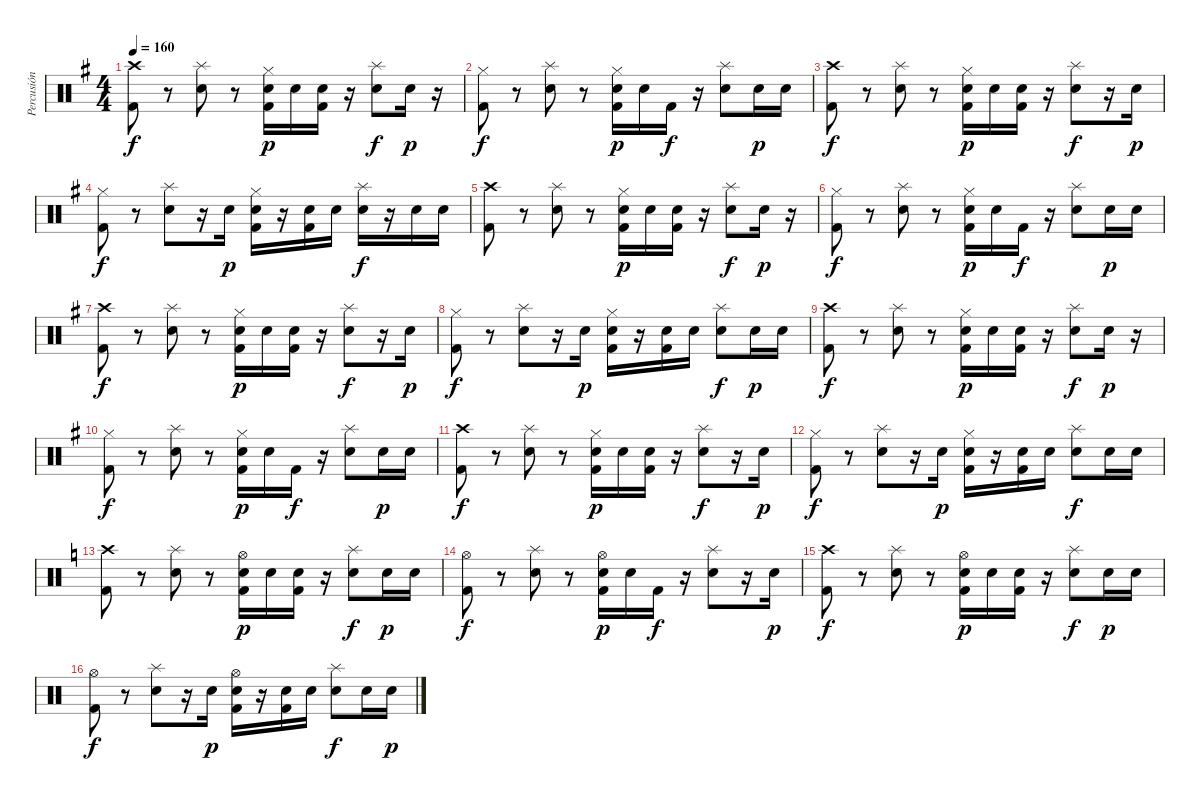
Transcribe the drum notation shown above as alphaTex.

\track ("Percusión" "Percusión") {instrument percussion}
\staff {score}
\articulation defaults
\ts (4 4)
\tempo 160
\clef neutral
\ks g
("Crash high (hit)" "Kick (hit) 2").8{dy f} r.8 ("Splash (hit)" "Electric Snare (hit)").8 r.8 ("Hi-Hat (closed)" "Electric Snare (hit)" "Kick (hit) 2").16{dy p} "Electric Snare (hit)".16 ("Electric Snare (hit)" "Kick (hit) 2").16 r.16 ("Splash (hit)" "Electric Snare (hit)").8{dy f} "Electric Snare (hit)".16{dy p} r.16 |
("Hi-Hat (closed)" "Kick (hit) 2").8{dy f} r.8 ("Splash (hit)" "Electric Snare (hit)").8 r.8 ("Hi-Hat (closed)" "Electric Snare (hit)" "Kick (hit) 2").16{dy p} "Electric Snare (hit)".16 "Kick (hit) 2".16{dy f} r.16 ("Splash (hit)" "Electric Snare (hit)").8 "Electric Snare (hit)".16{dy p} "Electric Snare (hit)".16 |
("Crash high (hit)" "Kick (hit) 2").8{dy f} r.8 ("Splash (hit)" "Electric Snare (hit)").8 r.8 ("Hi-Hat (closed)" "Electric Snare (hit)" "Kick (hit) 2").16{dy p} "Electric Snare (hit)".16 ("Electric Snare (hit)" "Kick (hit) 2").16 r.16 ("Splash (hit)" "Electric Snare (hit)").8{dy f} r.16 "Electric Snare (hit)".16{dy p} |
("Hi-Hat (closed)" "Kick (hit) 2").8{dy f} r.8 ("Splash (hit)" "Electric Snare (hit)").8 r.16 "Electric Snare (hit)".16{dy p} ("Hi-Hat (closed)" "Electric Snare (hit)" "Kick (hit) 2").16 r.16 ("Electric Snare (hit)" "Kick (hit) 2").16 "Electric Snare (hit)".16 ("Splash (hit)" "Electric Snare (hit)").16{dy f} r.16 "Electric Snare (hit)".16 "Electric Snare (hit)".16 |
("Crash high (hit)" "Kick (hit) 2").8 r.8 ("Splash (hit)" "Electric Snare (hit)").8 r.8 ("Hi-Hat (closed)" "Electric Snare (hit)" "Kick (hit) 2").16{dy p} "Electric Snare (hit)".16 ("Electric Snare (hit)" "Kick (hit) 2").16 r.16 ("Splash (hit)" "Electric Snare (hit)").8{dy f} "Electric Snare (hit)".16{dy p} r.16 |
("Hi-Hat (closed)" "Kick (hit) 2").8{dy f} r.8 ("Splash (hit)" "Electric Snare (hit)").8 r.8 ("Hi-Hat (closed)" "Electric Snare (hit)" "Kick (hit) 2").16{dy p} "Electric Snare (hit)".16 "Kick (hit) 2".16{dy f} r.16 ("Splash (hit)" "Electric Snare (hit)").8 "Electric Snare (hit)".16{dy p} "Electric Snare (hit)".16 |
("Crash high (hit)" "Kick (hit) 2").8{dy f} r.8 ("Splash (hit)" "Electric Snare (hit)").8 r.8 ("Hi-Hat (closed)" "Electric Snare (hit)" "Kick (hit) 2").16{dy p} "Electric Snare (hit)".16 ("Electric Snare (hit)" "Kick (hit) 2").16 r.16 ("Splash (hit)" "Electric Snare (hit)").8{dy f} r.16 "Electric Snare (hit)".16{dy p} |
("Hi-Hat (closed)" "Kick (hit) 2").8{dy f} r.8 ("Splash (hit)" "Electric Snare (hit)").8 r.16 "Electric Snare (hit)".16{dy p} ("Hi-Hat (closed)" "Electric Snare (hit)" "Kick (hit) 2").16 r.16 ("Electric Snare (hit)" "Kick (hit) 2").16 "Electric Snare (hit)".16 ("Splash (hit)" "Electric Snare (hit)").8{dy f} "Electric Snare (hit)".16{dy p} "Electric Snare (hit)".16 |
("Crash high (hit)" "Kick (hit) 2").8{dy f} r.8 ("Splash (hit)" "Electric Snare (hit)").8 r.8 ("Hi-Hat (closed)" "Electric Snare (hit)" "Kick (hit) 2").16{dy p} "Electric Snare (hit)".16 ("Electric Snare (hit)" "Kick (hit) 2").16 r.16 ("Splash (hit)" "Electric Snare (hit)").8{dy f} "Electric Snare (hit)".16{dy p} r.16 |
("Hi-Hat (closed)" "Kick (hit) 2").8{dy f} r.8 ("Splash (hit)" "Electric Snare (hit)").8 r.8 ("Hi-Hat (closed)" "Electric Snare (hit)" "Kick (hit) 2").16{dy p} "Electric Snare (hit)".16 "Kick (hit) 2".16{dy f} r.16 ("Splash (hit)" "Electric Snare (hit)").8 "Electric Snare (hit)".16{dy p} "Electric Snare (hit)".16 |
("Crash high (hit)" "Kick (hit) 2").8{dy f} r.8 ("Splash (hit)" "Electric Snare (hit)").8 r.8 ("Hi-Hat (closed)" "Electric Snare (hit)" "Kick (hit) 2").16{dy p} "Electric Snare (hit)".16 ("Electric Snare (hit)" "Kick (hit) 2").16 r.16 ("Splash (hit)" "Electric Snare (hit)").8{dy f} r.16 "Electric Snare (hit)".16{dy p} |
("Hi-Hat (closed)" "Kick (hit) 2").8{dy f} r.8 ("Splash (hit)" "Electric Snare (hit)").8 r.16 "Electric Snare (hit)".16{dy p} ("Hi-Hat (closed)" "Electric Snare (hit)" "Kick (hit) 2").16 r.16 ("Electric Snare (hit)" "Kick (hit) 2").16 "Electric Snare (hit)".16 ("Splash (hit)" "Electric Snare (hit)").8{dy f} "Electric Snare (hit)".16 "Electric Snare (hit)".16 |
\ks c
("Crash high (hit)" "Kick (hit) 2").8 r.8 ("Splash (hit)" "Electric Snare (hit)").8 r.8 ("Hi-Hat (open)" "Electric Snare (hit)" "Kick (hit) 2").16{dy p} "Electric Snare (hit)".16 ("Electric Snare (hit)" "Kick (hit) 2").16 r.16 ("Splash (hit)" "Electric Snare (hit)").8{dy f} "Electric Snare (hit)".16{dy p} "Electric Snare (hit)".16 |
("Hi-Hat (open)" "Kick (hit) 2").8{dy f} r.8 ("Splash (hit)" "Electric Snare (hit)").8 r.8 ("Hi-Hat (open)" "Electric Snare (hit)" "Kick (hit) 2").16{dy p} "Electric Snare (hit)".16 "Kick (hit) 2".16{dy f} r.16 ("Splash (hit)" "Electric Snare (hit)").8 r.16 "Electric Snare (hit)".16{dy p} |
("Crash high (hit)" "Kick (hit) 2").8{dy f} r.8 ("Splash (hit)" "Electric Snare (hit)").8 r.8 ("Hi-Hat (open)" "Electric Snare (hit)" "Kick (hit) 2").16{dy p} "Electric Snare (hit)".16 ("Electric Snare (hit)" "Kick (hit) 2").16 r.16 ("Splash (hit)" "Electric Snare (hit)").8{dy f} "Electric Snare (hit)".16{dy p} "Electric Snare (hit)".16 |
("Hi-Hat (open)" "Kick (hit) 2").8{dy f} r.8 ("Splash (hit)" "Electric Snare (hit)").8 r.16 "Electric Snare (hit)".16{dy p} ("Hi-Hat (open)" "Electric Snare (hit)" "Kick (hit) 2").16 r.16 ("Electric Snare (hit)" "Kick (hit) 2").16 "Electric Snare (hit)".16 ("Splash (hit)" "Electric Snare (hit)").8{dy f} "Electric Snare (hit)".16 "Electric Snare (hit)".16{dy p}
